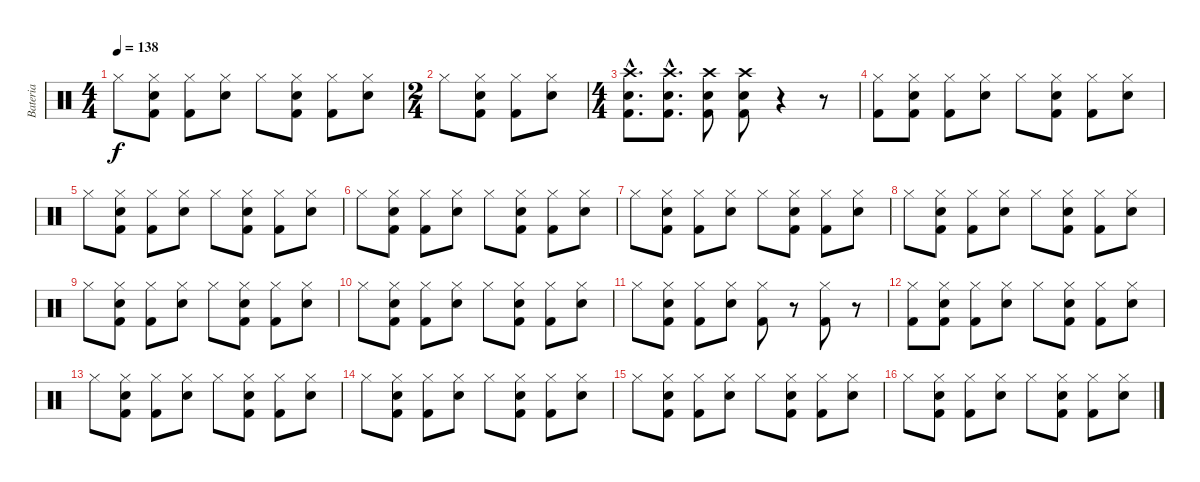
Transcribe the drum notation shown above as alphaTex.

\track ("Bateria" "Bateria") {instrument percussion}
\staff {score}
\articulation defaults
\ts (4 4)
\tempo 138
\clef neutral
\ks c "Hi-Hat (closed)".8{dy f}
("Electric Snare (hit)" "Hi-Hat (closed)" "Kick (hit) 2").8 ("Hi-Hat (closed)" "Kick (hit) 2").8 ("Electric Snare (hit)" "Hi-Hat (closed)").8 "Hi-Hat (closed)".8 ("Electric Snare (hit)" "Hi-Hat (closed)" "Kick (hit) 2").8 ("Hi-Hat (closed)" "Kick (hit) 2").8 ("Electric Snare (hit)" "Hi-Hat (closed)").8 |
\ts (2 4)
"Hi-Hat (closed)".8 ("Electric Snare (hit)" "Hi-Hat (closed)" "Kick (hit) 2").8 ("Hi-Hat (closed)" "Kick (hit) 2").8 ("Electric Snare (hit)" "Hi-Hat (closed)").8 |
\ts (4 4)
("Electric Snare (hit)"{hac} "Crash high (hit)"{hac} "Kick (hit) 2"{hac}).8{d} ("Electric Snare (hit)"{hac} "Crash high (hit)"{hac} "Kick (hit) 2"{hac}).8{d} ("Electric Snare (hit)" "Crash high (hit)" "Kick (hit) 2").8 ("Electric Snare (hit)" "Crash high (hit)" "Kick (hit) 2").8 r.4 r.8 |
("Hi-Hat (closed)" "Kick (hit) 2").8 ("Electric Snare (hit)" "Hi-Hat (closed)" "Kick (hit) 2").8 ("Hi-Hat (closed)" "Kick (hit) 2").8 ("Electric Snare (hit)" "Hi-Hat (closed)").8 "Hi-Hat (closed)".8 ("Electric Snare (hit)" "Hi-Hat (closed)" "Kick (hit) 2").8 ("Hi-Hat (closed)" "Kick (hit) 2").8 ("Electric Snare (hit)" "Hi-Hat (closed)").8 |
"Hi-Hat (closed)".8 ("Electric Snare (hit)" "Hi-Hat (closed)" "Kick (hit) 2").8 ("Hi-Hat (closed)" "Kick (hit) 2").8 ("Electric Snare (hit)" "Hi-Hat (closed)").8 "Hi-Hat (closed)".8 ("Electric Snare (hit)" "Hi-Hat (closed)" "Kick (hit) 2").8 ("Hi-Hat (closed)" "Kick (hit) 2").8 ("Electric Snare (hit)" "Hi-Hat (closed)").8 |
"Hi-Hat (closed)".8 ("Electric Snare (hit)" "Hi-Hat (closed)" "Kick (hit) 2").8 ("Hi-Hat (closed)" "Kick (hit) 2").8 ("Electric Snare (hit)" "Hi-Hat (closed)").8 "Hi-Hat (closed)".8 ("Electric Snare (hit)" "Hi-Hat (closed)" "Kick (hit) 2").8 ("Hi-Hat (closed)" "Kick (hit) 2").8 ("Electric Snare (hit)" "Hi-Hat (closed)").8 |
"Hi-Hat (closed)".8 ("Electric Snare (hit)" "Hi-Hat (closed)" "Kick (hit) 2").8 ("Hi-Hat (closed)" "Kick (hit) 2").8 ("Electric Snare (hit)" "Hi-Hat (closed)").8 "Hi-Hat (closed)".8 ("Electric Snare (hit)" "Hi-Hat (closed)" "Kick (hit) 2").8 ("Hi-Hat (closed)" "Kick (hit) 2").8 ("Electric Snare (hit)" "Hi-Hat (closed)").8 |
"Hi-Hat (closed)".8 ("Electric Snare (hit)" "Hi-Hat (closed)" "Kick (hit) 2").8 ("Hi-Hat (closed)" "Kick (hit) 2").8 ("Electric Snare (hit)" "Hi-Hat (closed)").8 "Hi-Hat (closed)".8 ("Electric Snare (hit)" "Hi-Hat (closed)" "Kick (hit) 2").8 ("Hi-Hat (closed)" "Kick (hit) 2").8 ("Electric Snare (hit)" "Hi-Hat (closed)").8 |
"Hi-Hat (closed)".8 ("Electric Snare (hit)" "Hi-Hat (closed)" "Kick (hit) 2").8 ("Hi-Hat (closed)" "Kick (hit) 2").8 ("Electric Snare (hit)" "Hi-Hat (closed)").8 "Hi-Hat (closed)".8 ("Electric Snare (hit)" "Hi-Hat (closed)" "Kick (hit) 2").8 ("Hi-Hat (closed)" "Kick (hit) 2").8 ("Electric Snare (hit)" "Hi-Hat (closed)").8 |
"Hi-Hat (closed)".8 ("Electric Snare (hit)" "Hi-Hat (closed)" "Kick (hit) 2").8 ("Hi-Hat (closed)" "Kick (hit) 2").8 ("Electric Snare (hit)" "Hi-Hat (closed)").8 "Hi-Hat (closed)".8 ("Electric Snare (hit)" "Hi-Hat (closed)" "Kick (hit) 2").8 ("Hi-Hat (closed)" "Kick (hit) 2").8 ("Electric Snare (hit)" "Hi-Hat (closed)").8 |
"Hi-Hat (closed)".8{volume 16} ("Electric Snare (hit)" "Hi-Hat (closed)" "Kick (hit) 2").8 ("Hi-Hat (closed)" "Kick (hit) 2").8 ("Electric Snare (hit)" "Hi-Hat (closed)").8 ("Hi-Hat (closed)" "Kick (hit) 2").8 r.8 ("Hi-Hat (closed)" "Kick (hit) 2").8 r.8 |
("Hi-Hat (closed)" "Kick (hit) 2").8 ("Electric Snare (hit)" "Hi-Hat (closed)" "Kick (hit) 2").8 ("Hi-Hat (closed)" "Kick (hit) 2").8 ("Electric Snare (hit)" "Hi-Hat (closed)").8 "Hi-Hat (closed)".8 ("Electric Snare (hit)" "Hi-Hat (closed)" "Kick (hit) 2").8 ("Hi-Hat (closed)" "Kick (hit) 2").8 ("Electric Snare (hit)" "Hi-Hat (closed)").8 |
"Hi-Hat (closed)".8 ("Electric Snare (hit)" "Hi-Hat (closed)" "Kick (hit) 2").8 ("Hi-Hat (closed)" "Kick (hit) 2").8 ("Electric Snare (hit)" "Hi-Hat (closed)").8 "Hi-Hat (closed)".8 ("Electric Snare (hit)" "Hi-Hat (closed)" "Kick (hit) 2").8 ("Hi-Hat (closed)" "Kick (hit) 2").8 ("Electric Snare (hit)" "Hi-Hat (closed)").8 |
"Hi-Hat (closed)".8 ("Electric Snare (hit)" "Hi-Hat (closed)" "Kick (hit) 2").8 ("Hi-Hat (closed)" "Kick (hit) 2").8 ("Electric Snare (hit)" "Hi-Hat (closed)").8 "Hi-Hat (closed)".8 ("Electric Snare (hit)" "Hi-Hat (closed)" "Kick (hit) 2").8 ("Hi-Hat (closed)" "Kick (hit) 2").8 ("Electric Snare (hit)" "Hi-Hat (closed)").8 |
"Hi-Hat (closed)".8 ("Electric Snare (hit)" "Hi-Hat (closed)" "Kick (hit) 2").8 ("Hi-Hat (closed)" "Kick (hit) 2").8 ("Electric Snare (hit)" "Hi-Hat (closed)").8 "Hi-Hat (closed)".8 ("Electric Snare (hit)" "Hi-Hat (closed)" "Kick (hit) 2").8 ("Hi-Hat (closed)" "Kick (hit) 2").8 ("Electric Snare (hit)" "Hi-Hat (closed)").8 |
"Hi-Hat (closed)".8 ("Electric Snare (hit)" "Hi-Hat (closed)" "Kick (hit) 2").8 ("Hi-Hat (closed)" "Kick (hit) 2").8 ("Electric Snare (hit)" "Hi-Hat (closed)").8 "Hi-Hat (closed)".8 ("Electric Snare (hit)" "Hi-Hat (closed)" "Kick (hit) 2").8 ("Hi-Hat (closed)" "Kick (hit) 2").8 ("Electric Snare (hit)" "Hi-Hat (closed)").8
